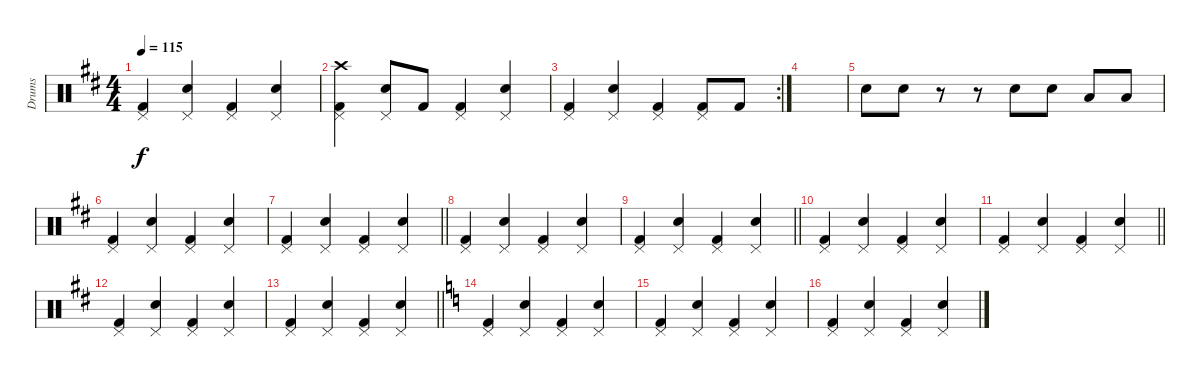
\track ("Drums" "Drums") {instrument percussion}
\staff {score}
\articulation defaults
\ts (4 4)
\tempo 115
\clef neutral
\ks d
("Kick (hit) 2" "Pedal Hi-Hat (hit)").4{dy f} ("Snare (hit) 2" "Pedal Hi-Hat (hit)").4 ("Kick (hit) 2" "Pedal Hi-Hat (hit)").4 ("Snare (hit) 2" "Pedal Hi-Hat (hit)").4 |
("Kick (hit) 2" "Pedal Hi-Hat (hit)" "Crash high (hit)").4 ("Snare (hit) 2" "Pedal Hi-Hat (hit)").8 "Kick (hit) 2".8 ("Kick (hit) 2" "Pedal Hi-Hat (hit)").4 ("Snare (hit) 2" "Pedal Hi-Hat (hit)").4 |
\rc 2
("Kick (hit) 2" "Pedal Hi-Hat (hit)").4 ("Snare (hit) 2" "Pedal Hi-Hat (hit)").4 ("Kick (hit) 2" "Pedal Hi-Hat (hit)").4 ("Kick (hit) 2" "Pedal Hi-Hat (hit)").8 "Kick (hit) 2".8 |
|
"Snare (hit) 2".8 "Snare (hit) 2".8 r.8 r.8 "Snare (hit) 2".8 "Snare (hit) 2".8 "Low Tom (hit)".8 "Low Floor Tom (hit)".8 |
("Kick (hit) 2" "Pedal Hi-Hat (hit)").4 ("Snare (hit) 2" "Pedal Hi-Hat (hit)").4 ("Kick (hit) 2" "Pedal Hi-Hat (hit)").4 ("Snare (hit) 2" "Pedal Hi-Hat (hit)").4 |
\barLineRight lightlight
("Kick (hit) 2" "Pedal Hi-Hat (hit)").4 ("Snare (hit) 2" "Pedal Hi-Hat (hit)").4 ("Kick (hit) 2" "Pedal Hi-Hat (hit)").4 ("Snare (hit) 2" "Pedal Hi-Hat (hit)").4 |
("Kick (hit) 2" "Pedal Hi-Hat (hit)").4 ("Snare (hit) 2" "Pedal Hi-Hat (hit)").4 ("Kick (hit) 2" "Pedal Hi-Hat (hit)").4 ("Snare (hit) 2" "Pedal Hi-Hat (hit)").4 |
\barLineRight lightlight
("Kick (hit) 2" "Pedal Hi-Hat (hit)").4 ("Snare (hit) 2" "Pedal Hi-Hat (hit)").4 ("Kick (hit) 2" "Pedal Hi-Hat (hit)").4 ("Snare (hit) 2" "Pedal Hi-Hat (hit)").4 |
("Kick (hit) 2" "Pedal Hi-Hat (hit)").4 ("Snare (hit) 2" "Pedal Hi-Hat (hit)").4 ("Kick (hit) 2" "Pedal Hi-Hat (hit)").4 ("Snare (hit) 2" "Pedal Hi-Hat (hit)").4 |
\barLineRight lightlight
("Kick (hit) 2" "Pedal Hi-Hat (hit)").4 ("Snare (hit) 2" "Pedal Hi-Hat (hit)").4 ("Kick (hit) 2" "Pedal Hi-Hat (hit)").4 ("Snare (hit) 2" "Pedal Hi-Hat (hit)").4 |
("Kick (hit) 2" "Pedal Hi-Hat (hit)").4 ("Snare (hit) 2" "Pedal Hi-Hat (hit)").4 ("Kick (hit) 2" "Pedal Hi-Hat (hit)").4 ("Snare (hit) 2" "Pedal Hi-Hat (hit)").4 |
\barLineRight lightlight
("Kick (hit) 2" "Pedal Hi-Hat (hit)").4 ("Snare (hit) 2" "Pedal Hi-Hat (hit)").4 ("Kick (hit) 2" "Pedal Hi-Hat (hit)").4 ("Snare (hit) 2" "Pedal Hi-Hat (hit)").4 |
\ks c
("Kick (hit) 2" "Pedal Hi-Hat (hit)").4 ("Snare (hit) 2" "Pedal Hi-Hat (hit)").4 ("Kick (hit) 2" "Pedal Hi-Hat (hit)").4 ("Snare (hit) 2" "Pedal Hi-Hat (hit)").4 |
("Kick (hit) 2" "Pedal Hi-Hat (hit)").4 ("Snare (hit) 2" "Pedal Hi-Hat (hit)").4 ("Kick (hit) 2" "Pedal Hi-Hat (hit)").4 ("Snare (hit) 2" "Pedal Hi-Hat (hit)").4 |
("Kick (hit) 2" "Pedal Hi-Hat (hit)").4 ("Snare (hit) 2" "Pedal Hi-Hat (hit)").4 ("Kick (hit) 2" "Pedal Hi-Hat (hit)").4 ("Snare (hit) 2" "Pedal Hi-Hat (hit)").4
